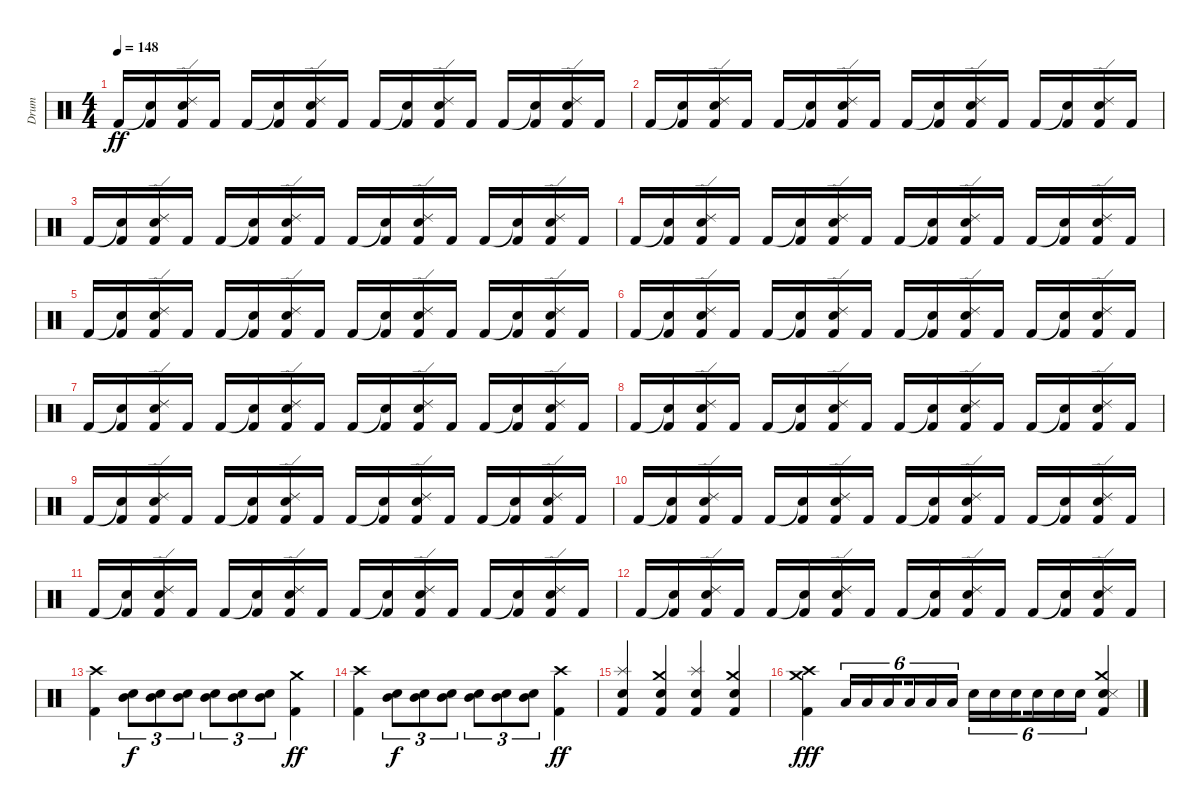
\track ("Drum" "Drum") {instrument percussion}
\staff {score}
\articulation defaults
\ts (4 4)
\tempo 148
\clef neutral
\ks c "Kick (hit) 2".16{dy ff}
("Snare (hit)"{t} "Kick (hit) 2").16 ("Ride (edge) 2" "Snare (hit) 2" "Kick (hit) 2").16 "Kick (hit) 2".16 "Kick (hit) 2".16 ("Snare (hit)"{t} "Kick (hit) 2").16 ("Ride (edge) 2" "Snare (hit) 2" "Kick (hit) 2").16 "Kick (hit) 2".16 "Kick (hit) 2".16 ("Snare (hit)"{t} "Kick (hit) 2").16 ("Ride (edge) 2" "Snare (hit) 2" "Kick (hit) 2").16 "Kick (hit) 2".16 "Kick (hit) 2".16 ("Snare (hit)"{t} "Kick (hit) 2").16 ("Ride (edge) 2" "Snare (hit) 2" "Kick (hit) 2").16 "Kick (hit) 2".16 |
"Kick (hit) 2".16 ("Snare (hit)"{t} "Kick (hit) 2").16 ("Ride (edge) 2" "Snare (hit) 2" "Kick (hit) 2").16 "Kick (hit) 2".16 "Kick (hit) 2".16 ("Snare (hit)"{t} "Kick (hit) 2").16 ("Ride (edge) 2" "Snare (hit) 2" "Kick (hit) 2").16 "Kick (hit) 2".16 "Kick (hit) 2".16 ("Snare (hit)"{t} "Kick (hit) 2").16 ("Ride (edge) 2" "Snare (hit) 2" "Kick (hit) 2").16 "Kick (hit) 2".16 "Kick (hit) 2".16 ("Snare (hit)"{t} "Kick (hit) 2").16 ("Ride (edge) 2" "Snare (hit) 2" "Kick (hit) 2").16 "Kick (hit) 2".16 |
"Kick (hit) 2".16 ("Snare (hit)"{t} "Kick (hit) 2").16 ("Ride (edge) 2" "Snare (hit) 2" "Kick (hit) 2").16 "Kick (hit) 2".16 "Kick (hit) 2".16 ("Snare (hit)"{t} "Kick (hit) 2").16 ("Ride (edge) 2" "Snare (hit) 2" "Kick (hit) 2").16 "Kick (hit) 2".16 "Kick (hit) 2".16 ("Snare (hit)"{t} "Kick (hit) 2").16 ("Ride (edge) 2" "Snare (hit) 2" "Kick (hit) 2").16 "Kick (hit) 2".16 "Kick (hit) 2".16 ("Snare (hit)"{t} "Kick (hit) 2").16 ("Ride (edge) 2" "Snare (hit) 2" "Kick (hit) 2").16 "Kick (hit) 2".16 |
"Kick (hit) 2".16 ("Snare (hit)"{t} "Kick (hit) 2").16 ("Ride (edge) 2" "Snare (hit) 2" "Kick (hit) 2").16 "Kick (hit) 2".16 "Kick (hit) 2".16 ("Snare (hit)"{t} "Kick (hit) 2").16 ("Ride (edge) 2" "Snare (hit) 2" "Kick (hit) 2").16 "Kick (hit) 2".16 "Kick (hit) 2".16 ("Snare (hit)"{t} "Kick (hit) 2").16 ("Ride (edge) 2" "Snare (hit) 2" "Kick (hit) 2").16 "Kick (hit) 2".16 "Kick (hit) 2".16 ("Snare (hit)"{t} "Kick (hit) 2").16 ("Ride (edge) 2" "Snare (hit) 2" "Kick (hit) 2").16 "Kick (hit) 2".16 |
"Kick (hit) 2".16 ("Snare (hit)"{t} "Kick (hit) 2").16 ("Ride (edge) 2" "Snare (hit) 2" "Kick (hit) 2").16 "Kick (hit) 2".16 "Kick (hit) 2".16 ("Snare (hit)"{t} "Kick (hit) 2").16 ("Ride (edge) 2" "Snare (hit) 2" "Kick (hit) 2").16 "Kick (hit) 2".16 "Kick (hit) 2".16 ("Snare (hit)"{t} "Kick (hit) 2").16 ("Ride (edge) 2" "Snare (hit) 2" "Kick (hit) 2").16 "Kick (hit) 2".16 "Kick (hit) 2".16 ("Snare (hit)"{t} "Kick (hit) 2").16 ("Ride (edge) 2" "Snare (hit) 2" "Kick (hit) 2").16 "Kick (hit) 2".16 |
"Kick (hit) 2".16 ("Snare (hit)"{t} "Kick (hit) 2").16 ("Ride (edge) 2" "Snare (hit) 2" "Kick (hit) 2").16 "Kick (hit) 2".16 "Kick (hit) 2".16 ("Snare (hit)"{t} "Kick (hit) 2").16 ("Ride (edge) 2" "Snare (hit) 2" "Kick (hit) 2").16 "Kick (hit) 2".16 "Kick (hit) 2".16 ("Snare (hit)"{t} "Kick (hit) 2").16 ("Ride (edge) 2" "Snare (hit) 2" "Kick (hit) 2").16 "Kick (hit) 2".16 "Kick (hit) 2".16 ("Snare (hit)"{t} "Kick (hit) 2").16 ("Ride (edge) 2" "Snare (hit) 2" "Kick (hit) 2").16 "Kick (hit) 2".16 |
"Kick (hit) 2".16 ("Snare (hit)"{t} "Kick (hit) 2").16 ("Ride (edge) 2" "Snare (hit) 2" "Kick (hit) 2").16 "Kick (hit) 2".16 "Kick (hit) 2".16 ("Snare (hit)"{t} "Kick (hit) 2").16 ("Ride (edge) 2" "Snare (hit) 2" "Kick (hit) 2").16 "Kick (hit) 2".16 "Kick (hit) 2".16 ("Snare (hit)"{t} "Kick (hit) 2").16 ("Ride (edge) 2" "Snare (hit) 2" "Kick (hit) 2").16 "Kick (hit) 2".16 "Kick (hit) 2".16 ("Snare (hit)"{t} "Kick (hit) 2").16 ("Ride (edge) 2" "Snare (hit) 2" "Kick (hit) 2").16 "Kick (hit) 2".16 |
"Kick (hit) 2".16 ("Snare (hit)"{t} "Kick (hit) 2").16 ("Ride (edge) 2" "Snare (hit) 2" "Kick (hit) 2").16 "Kick (hit) 2".16 "Kick (hit) 2".16 ("Snare (hit)"{t} "Kick (hit) 2").16 ("Ride (edge) 2" "Snare (hit) 2" "Kick (hit) 2").16 "Kick (hit) 2".16 "Kick (hit) 2".16 ("Snare (hit)"{t} "Kick (hit) 2").16 ("Ride (edge) 2" "Snare (hit) 2" "Kick (hit) 2").16 "Kick (hit) 2".16 "Kick (hit) 2".16 ("Snare (hit)"{t} "Kick (hit) 2").16 ("Ride (edge) 2" "Snare (hit) 2" "Kick (hit) 2").16 "Kick (hit) 2".16 |
"Kick (hit) 2".16 ("Snare (hit)"{t} "Kick (hit) 2").16 ("Ride (edge) 2" "Snare (hit) 2" "Kick (hit) 2").16 "Kick (hit) 2".16 "Kick (hit) 2".16 ("Snare (hit)"{t} "Kick (hit) 2").16 ("Ride (edge) 2" "Snare (hit) 2" "Kick (hit) 2").16 "Kick (hit) 2".16 "Kick (hit) 2".16 ("Snare (hit)"{t} "Kick (hit) 2").16 ("Ride (edge) 2" "Snare (hit) 2" "Kick (hit) 2").16 "Kick (hit) 2".16 "Kick (hit) 2".16 ("Snare (hit)"{t} "Kick (hit) 2").16 ("Ride (edge) 2" "Snare (hit) 2" "Kick (hit) 2").16 "Kick (hit) 2".16 |
"Kick (hit) 2".16 ("Snare (hit)"{t} "Kick (hit) 2").16 ("Ride (edge) 2" "Snare (hit) 2" "Kick (hit) 2").16 "Kick (hit) 2".16 "Kick (hit) 2".16 ("Snare (hit)"{t} "Kick (hit) 2").16 ("Ride (edge) 2" "Snare (hit) 2" "Kick (hit) 2").16 "Kick (hit) 2".16 "Kick (hit) 2".16 ("Snare (hit)"{t} "Kick (hit) 2").16 ("Ride (edge) 2" "Snare (hit) 2" "Kick (hit) 2").16 "Kick (hit) 2".16 "Kick (hit) 2".16 ("Snare (hit)"{t} "Kick (hit) 2").16 ("Ride (edge) 2" "Snare (hit) 2" "Kick (hit) 2").16 "Kick (hit) 2".16 |
"Kick (hit) 2".16 ("Snare (hit)"{t} "Kick (hit) 2").16 ("Ride (edge) 2" "Snare (hit) 2" "Kick (hit) 2").16 "Kick (hit) 2".16 "Kick (hit) 2".16 ("Snare (hit)"{t} "Kick (hit) 2").16 ("Ride (edge) 2" "Snare (hit) 2" "Kick (hit) 2").16 "Kick (hit) 2".16 "Kick (hit) 2".16 ("Snare (hit)"{t} "Kick (hit) 2").16 ("Ride (edge) 2" "Snare (hit) 2" "Kick (hit) 2").16 "Kick (hit) 2".16 "Kick (hit) 2".16 ("Snare (hit)"{t} "Kick (hit) 2").16 ("Ride (edge) 2" "Snare (hit) 2" "Kick (hit) 2").16 "Kick (hit) 2".16 |
"Kick (hit) 2".16 ("Snare (hit)"{t} "Kick (hit) 2").16 ("Ride (edge) 2" "Snare (hit) 2" "Kick (hit) 2").16 "Kick (hit) 2".16 "Kick (hit) 2".16 ("Snare (hit)"{t} "Kick (hit) 2").16 ("Ride (edge) 2" "Snare (hit) 2" "Kick (hit) 2").16 "Kick (hit) 2".16 "Kick (hit) 2".16 ("Snare (hit)"{t} "Kick (hit) 2").16 ("Ride (edge) 2" "Snare (hit) 2" "Kick (hit) 2").16 "Kick (hit) 2".16 "Kick (hit) 2".16 ("Snare (hit)"{t} "Kick (hit) 2").16 ("Ride (edge) 2" "Snare (hit) 2" "Kick (hit) 2").16 "Kick (hit) 2".16 |
("Crash high (hit)" "Kick (hit) 2").4 ("Mid Tom (hit)" "Snare (hit) 2").8{tu (3 2) dy f} ("Mid Tom (hit)" "Snare (hit) 2").8{tu (3 2)} ("Mid Tom (hit)" "Snare (hit) 2").8{tu (3 2)} ("Mid Tom (hit)" "Snare (hit) 2").8{tu (3 2)} ("Mid Tom (hit)" "Snare (hit) 2").8{tu (3 2)} ("Mid Tom (hit)" "Snare (hit) 2").8{tu (3 2)} ("Crash medium (hit)" "Kick (hit) 2").4{dy ff} |
("Crash high (hit)" "Kick (hit) 2").4 ("Mid Tom (hit)" "Snare (hit) 2").8{tu (3 2) dy f} ("Mid Tom (hit)" "Snare (hit) 2").8{tu (3 2)} ("Mid Tom (hit)" "Snare (hit) 2").8{tu (3 2)} ("Mid Tom (hit)" "Snare (hit) 2").8{tu (3 2)} ("Mid Tom (hit)" "Snare (hit) 2").8{tu (3 2)} ("Mid Tom (hit)" "Snare (hit) 2").8{tu (3 2)} ("Crash high (hit)" "Kick (hit) 2").4{dy ff} |
("Splash (hit)" "Electric Snare (hit)" "Kick (hit) 2").4 ("Crash medium (hit)" "Electric Snare (hit)" "Kick (hit) 2").4 ("Splash (hit)" "Electric Snare (hit)" "Kick (hit) 2").4 ("Crash medium (hit)" "Electric Snare (hit)" "Kick (hit) 2").4 |
("Crash medium (hit)" "Crash high (hit)" "Kick (hit) 2").4{dy fff} "Low Tom (hit)".16{tu (6 4)} "Low Tom (hit)".16{tu (6 4)} "Low Tom (hit)".16{tu (6 4) beam splitsecondary} "Low Tom (hit)".16{tu (6 4)} "Low Tom (hit)".16{tu (6 4)} "Low Tom (hit)".16{tu (6 4)} "Snare (hit) 2".16{tu (6 4)} "Snare (hit) 2".16{tu (6 4)} "Snare (hit) 2".16{tu (6 4) beam splitsecondary} "Snare (hit) 2".16{tu (6 4)} "Snare (hit) 2".16{tu (6 4)} "Snare (hit) 2".16{tu (6 4)} ("Crash medium (hit)" "Snare (hit) 2" "Snare (side stick) 3" "Kick (hit) 2").4
